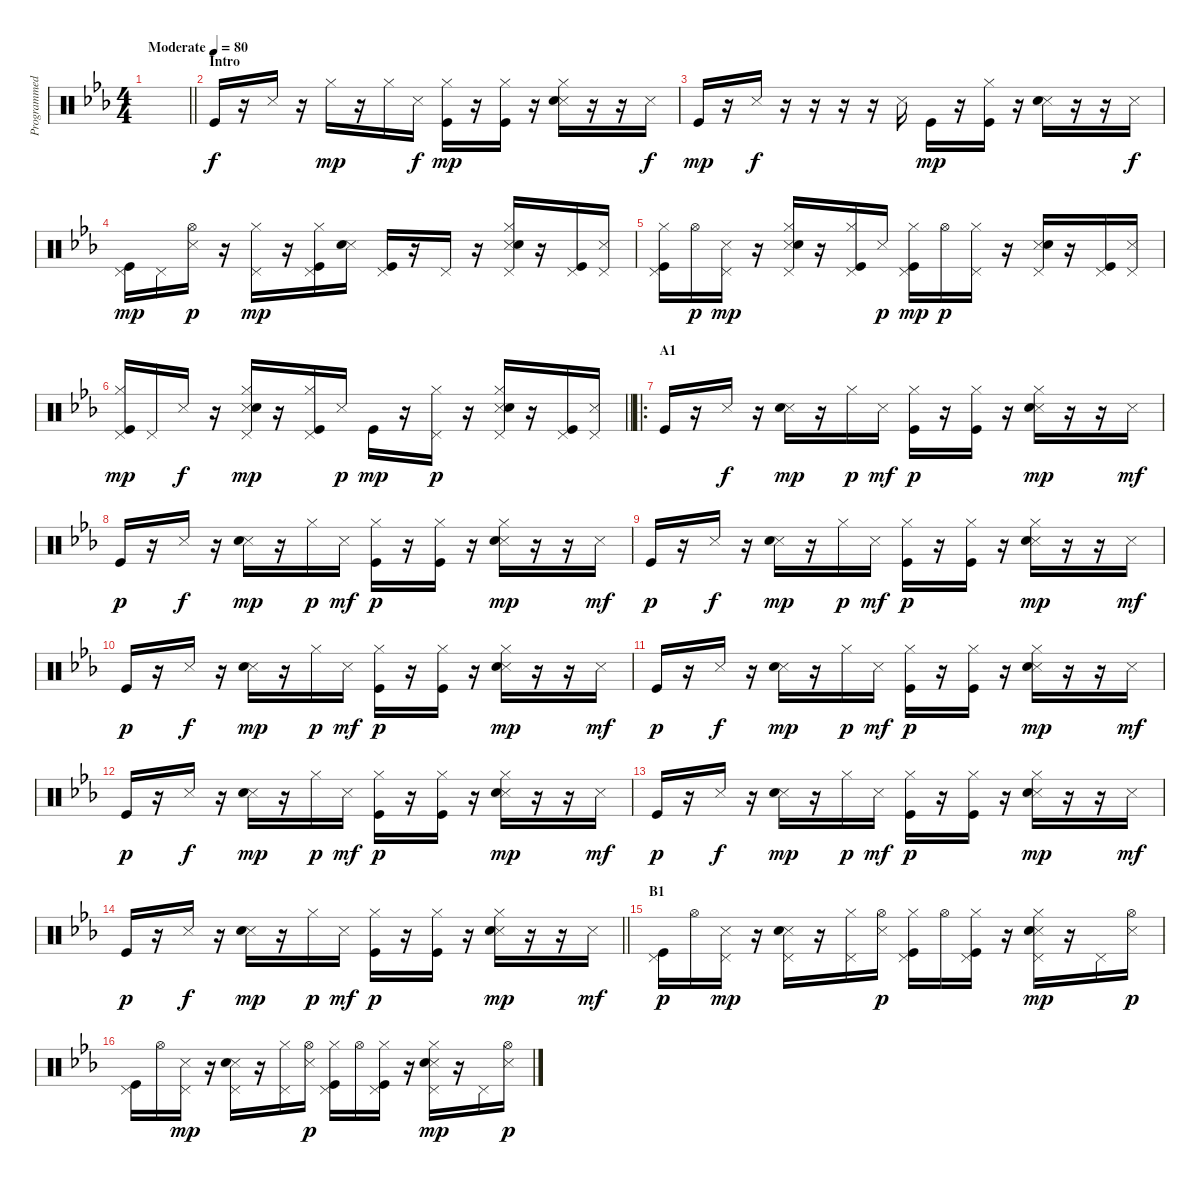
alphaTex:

\track ("Programmed Drum" "Programmed") {instrument percussion}
\staff {score}
\articulation defaults
\ts (4 4)
\tempo (80 "Moderate")
\clef neutral
\barLineRight lightlight
\ks eb
|
\section ("" "Intro")
"Kick (hit)".16 r.16 "Snare (side stick) 3".16{dy f} r.16 "Hi-Hat (closed)".16{dy mp} r.16 "Hi-Hat (closed)".16 "Snare (side stick) 3".16{dy f} ("Hi-Hat (closed)" "Kick (hit)").16{dy mp} r.16 ("Hi-Hat (closed)" "Kick (hit)").16 r.16 ("Hi-Hat (closed)" "Snare (side stick) 3" "Snare (hit) 2").16 r.16 r.16 "Snare (side stick) 3".16{dy f} |
"Kick (hit)".16{dy mp} r.16 "Snare (side stick) 3".16{dy f} r.16 r.16 r.16 r.16 "Snare (side stick) 3".16 "Kick (hit)".16{dy mp} r.16 ("Hi-Hat (closed)" "Kick (hit)").16 r.16 ("Snare (side stick) 3" "Snare (hit) 2").16 r.16 r.16 "Snare (side stick) 3".16{dy f} |
("Kick (hit)" "Pedal Hi-Hat (hit)").16{dy mp} "Pedal Hi-Hat (hit)".16 ("Snare (side stick) 3" "Hi-Hat (open)").16{dy p} r.16 ("Hi-Hat (closed)" "Pedal Hi-Hat (hit)").16{dy mp} r.16 ("Hi-Hat (closed)" "Kick (hit)" "Pedal Hi-Hat (hit)").16 ("Snare (side stick) 3" "Snare (hit) 2").16 ("Kick (hit)" "Pedal Hi-Hat (hit)").16 r.16 "Pedal Hi-Hat (hit)".16 r.16 ("Hi-Hat (closed)" "Snare (side stick) 3" "Snare (hit) 2" "Pedal Hi-Hat (hit)").16 r.16 ("Kick (hit)" "Pedal Hi-Hat (hit)").16 ("Snare (side stick) 3" "Pedal Hi-Hat (hit)").16 |
("Hi-Hat (closed)" "Kick (hit)" "Pedal Hi-Hat (hit)").16 "Hi-Hat (open)".16{dy p} ("Snare (side stick) 3" "Pedal Hi-Hat (hit)").16{dy mp} r.16 ("Hi-Hat (closed)" "Snare (side stick) 3" "Snare (hit) 2" "Pedal Hi-Hat (hit)").16 r.16 ("Hi-Hat (closed)" "Kick (hit)" "Pedal Hi-Hat (hit)").16 "Snare (side stick) 3".16{dy p} ("Hi-Hat (closed)" "Kick (hit)" "Pedal Hi-Hat (hit)").16{dy mp} "Hi-Hat (open)".16{dy p} ("Hi-Hat (closed)" "Pedal Hi-Hat (hit)").16 r.16 ("Snare (side stick) 3" "Snare (hit) 2" "Pedal Hi-Hat (hit)").16 r.16 ("Kick (hit)" "Pedal Hi-Hat (hit)").16 ("Snare (side stick) 3" "Pedal Hi-Hat (hit)").16 |
\barLineRight lightlight
("Hi-Hat (closed)" "Kick (hit)" "Pedal Hi-Hat (hit)").16{dy mp} "Pedal Hi-Hat (hit)".16 "Snare (side stick) 3".16{dy f} r.16 ("Hi-Hat (closed)" "Snare (side stick) 3" "Snare (hit) 2" "Pedal Hi-Hat (hit)").16{dy mp} r.16 ("Hi-Hat (closed)" "Kick (hit)" "Pedal Hi-Hat (hit)").16 "Snare (side stick) 3".16{dy p} "Kick (hit)".16{dy mp} r.16 ("Hi-Hat (closed)" "Pedal Hi-Hat (hit)").16{dy p} r.16 ("Hi-Hat (closed)" "Snare (side stick) 3" "Snare (hit) 2" "Pedal Hi-Hat (hit)").16 r.16 ("Kick (hit)" "Pedal Hi-Hat (hit)").16 ("Snare (side stick) 3" "Pedal Hi-Hat (hit)").16 |
\ro
\section ("" "A1")
"Kick (hit)".16 r.16 "Snare (side stick) 3".16{dy f} r.16 ("Snare (side stick) 3" "Snare (hit) 2").16{dy mp} r.16 "Hi-Hat (closed)".16{dy p} "Snare (side stick) 3".16{dy mf} ("Hi-Hat (closed)" "Kick (hit)").16{dy p} r.16 ("Hi-Hat (closed)" "Kick (hit)").16 r.16 ("Hi-Hat (closed)" "Snare (side stick) 3" "Snare (hit) 2").16{dy mp} r.16 r.16 "Snare (side stick) 3".16{dy mf} |
"Kick (hit)".16{dy p} r.16 "Snare (side stick) 3".16{dy f} r.16 ("Snare (side stick) 3" "Snare (hit) 2").16{dy mp} r.16 "Hi-Hat (closed)".16{dy p} "Snare (side stick) 3".16{dy mf} ("Hi-Hat (closed)" "Kick (hit)").16{dy p} r.16 ("Hi-Hat (closed)" "Kick (hit)").16 r.16 ("Hi-Hat (closed)" "Snare (side stick) 3" "Snare (hit) 2").16{dy mp} r.16 r.16 "Snare (side stick) 3".16{dy mf} |
"Kick (hit)".16{dy p} r.16 "Snare (side stick) 3".16{dy f} r.16 ("Snare (side stick) 3" "Snare (hit) 2").16{dy mp} r.16 "Hi-Hat (closed)".16{dy p} "Snare (side stick) 3".16{dy mf} ("Hi-Hat (closed)" "Kick (hit)").16{dy p} r.16 ("Hi-Hat (closed)" "Kick (hit)").16 r.16 ("Hi-Hat (closed)" "Snare (side stick) 3" "Snare (hit) 2").16{dy mp} r.16 r.16 "Snare (side stick) 3".16{dy mf} |
"Kick (hit)".16{dy p} r.16 "Snare (side stick) 3".16{dy f} r.16 ("Snare (side stick) 3" "Snare (hit) 2").16{dy mp} r.16 "Hi-Hat (closed)".16{dy p} "Snare (side stick) 3".16{dy mf} ("Hi-Hat (closed)" "Kick (hit)").16{dy p} r.16 ("Hi-Hat (closed)" "Kick (hit)").16 r.16 ("Hi-Hat (closed)" "Snare (side stick) 3" "Snare (hit) 2").16{dy mp} r.16 r.16 "Snare (side stick) 3".16{dy mf} |
"Kick (hit)".16{dy p} r.16 "Snare (side stick) 3".16{dy f} r.16 ("Snare (side stick) 3" "Snare (hit) 2").16{dy mp} r.16 "Hi-Hat (closed)".16{dy p} "Snare (side stick) 3".16{dy mf} ("Hi-Hat (closed)" "Kick (hit)").16{dy p} r.16 ("Hi-Hat (closed)" "Kick (hit)").16 r.16 ("Hi-Hat (closed)" "Snare (side stick) 3" "Snare (hit) 2").16{dy mp} r.16 r.16 "Snare (side stick) 3".16{dy mf} |
"Kick (hit)".16{dy p} r.16 "Snare (side stick) 3".16{dy f} r.16 ("Snare (side stick) 3" "Snare (hit) 2").16{dy mp} r.16 "Hi-Hat (closed)".16{dy p} "Snare (side stick) 3".16{dy mf} ("Hi-Hat (closed)" "Kick (hit)").16{dy p} r.16 ("Hi-Hat (closed)" "Kick (hit)").16 r.16 ("Hi-Hat (closed)" "Snare (side stick) 3" "Snare (hit) 2").16{dy mp} r.16 r.16 "Snare (side stick) 3".16{dy mf} |
"Kick (hit)".16{dy p} r.16 "Snare (side stick) 3".16{dy f} r.16 ("Snare (side stick) 3" "Snare (hit) 2").16{dy mp} r.16 "Hi-Hat (closed)".16{dy p} "Snare (side stick) 3".16{dy mf} ("Hi-Hat (closed)" "Kick (hit)").16{dy p} r.16 ("Hi-Hat (closed)" "Kick (hit)").16 r.16 ("Hi-Hat (closed)" "Snare (side stick) 3" "Snare (hit) 2").16{dy mp} r.16 r.16 "Snare (side stick) 3".16{dy mf} |
\barLineRight lightlight "Kick (hit)".16{dy p}
r.16 "Snare (side stick) 3".16{dy f} r.16 ("Snare (side stick) 3" "Snare (hit) 2").16{dy mp} r.16 "Hi-Hat (closed)".16{dy p} "Snare (side stick) 3".16{dy mf} ("Hi-Hat (closed)" "Kick (hit)").16{dy p} r.16 ("Hi-Hat (closed)" "Kick (hit)").16 r.16 ("Hi-Hat (closed)" "Snare (side stick) 3" "Snare (hit) 2").16{dy mp} r.16 r.16 "Snare (side stick) 3".16{dy mf} |
\section ("" "B1")
("Pedal Hi-Hat (hit)" "Kick (hit)").16{dy p} "Hi-Hat (open)".16 ("Snare (side stick) 3" "Pedal Hi-Hat (hit)").16{dy mp} r.16 ("Snare (side stick) 3" "Snare (hit) 2" "Pedal Hi-Hat (hit)").16 r.16 ("Hi-Hat (closed)" "Pedal Hi-Hat (hit)").16 ("Snare (side stick) 3" "Hi-Hat (open)").16{dy p} ("Hi-Hat (closed)" "Pedal Hi-Hat (hit)" "Kick (hit)").16 "Hi-Hat (open)".16 ("Hi-Hat (closed)" "Pedal Hi-Hat (hit)" "Kick (hit)").16 r.16 ("Hi-Hat (closed)" "Snare (side stick) 3" "Snare (hit) 2" "Pedal Hi-Hat (hit)").16{dy mp} r.16 "Pedal Hi-Hat (hit)".16 ("Snare (side stick) 3" "Hi-Hat (open)").16{dy p} |
("Pedal Hi-Hat (hit)" "Kick (hit)").16 "Hi-Hat (open)".16 ("Snare (side stick) 3" "Pedal Hi-Hat (hit)").16{dy mp} r.16 ("Snare (side stick) 3" "Snare (hit) 2" "Pedal Hi-Hat (hit)").16 r.16 ("Hi-Hat (closed)" "Pedal Hi-Hat (hit)").16 ("Snare (side stick) 3" "Hi-Hat (open)").16{dy p} ("Hi-Hat (closed)" "Pedal Hi-Hat (hit)" "Kick (hit)").16 "Hi-Hat (open)".16 ("Hi-Hat (closed)" "Pedal Hi-Hat (hit)" "Kick (hit)").16 r.16 ("Hi-Hat (closed)" "Snare (side stick) 3" "Snare (hit) 2" "Pedal Hi-Hat (hit)").16{dy mp} r.16 "Pedal Hi-Hat (hit)".16 ("Snare (side stick) 3" "Hi-Hat (open)").16{dy p}
